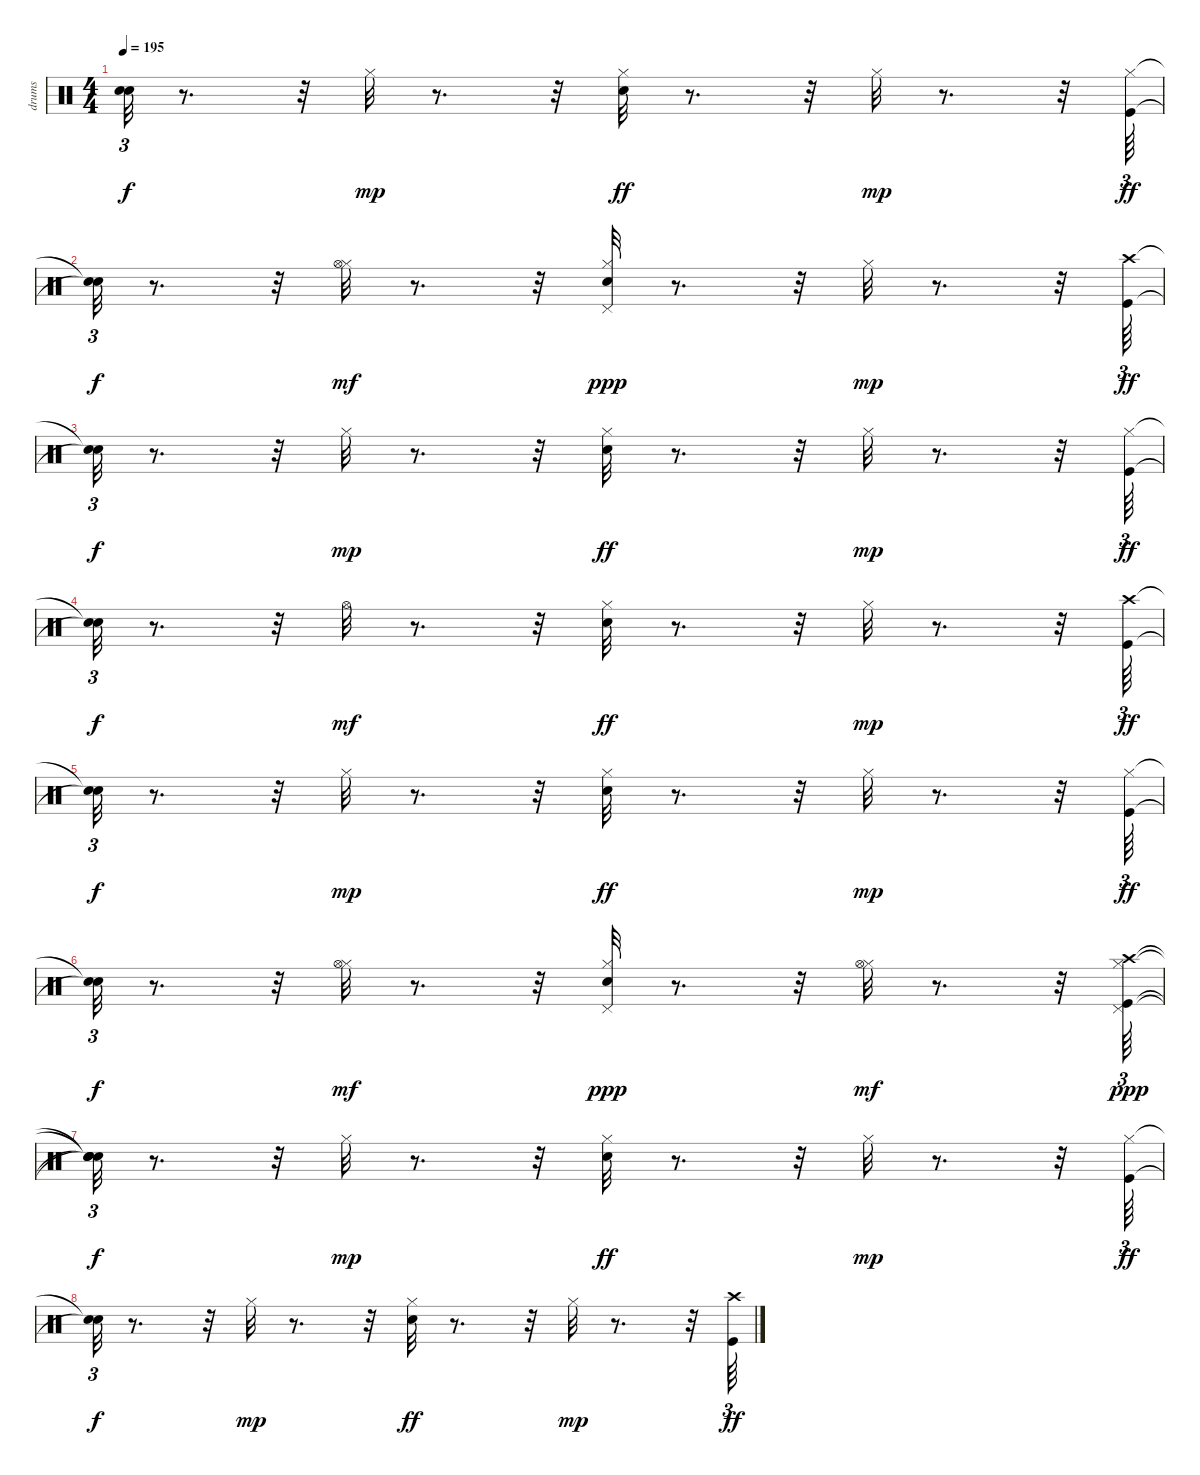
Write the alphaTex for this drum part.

\track ("drums" "drums") {instrument percussion}
\staff {score}
\articulation defaults
\ts (4 4)
\tempo 195
\clef neutral
\ks c
("Snare (hit)"{t} "Snare (hit)"{t}).32{tu (3 2) dy f} r.8{d} r.32 "Hi-Hat (closed)".32{dy mp} r.8{d} r.32 ("Snare (hit) 2" "Hi-Hat (closed)").32{dy ff} r.8{d} r.32 "Hi-Hat (closed)".32{dy mp} r.8{d} r.32 ("Hi-Hat (closed)" "Kick (hit)").64{tu (3 2) dy ff} |
("Snare (hit)"{t} "Snare (hit)"{t}).32{tu (3 2) dy f} r.8{d} r.32 ("Hi-Hat (closed)" "Hi-Hat (open)").32{dy mf} r.8{d} r.32 ("Hi-Hat (closed)" "Snare (hit) 2" "Pedal Hi-Hat (hit)").32{dy ppp} r.8{d} r.32 "Hi-Hat (closed)".32{dy mp} r.8{d} r.32 ("Crash high (hit)" "Kick (hit)").64{tu (3 2) dy ff} |
("Snare (hit)"{t} "Snare (hit)"{t}).32{tu (3 2) dy f} r.8{d} r.32 "Hi-Hat (closed)".32{dy mp} r.8{d} r.32 ("Snare (hit) 2" "Hi-Hat (closed)").32{dy ff} r.8{d} r.32 "Hi-Hat (closed)".32{dy mp} r.8{d} r.32 ("Kick (hit)" "Hi-Hat (closed)").64{tu (3 2) dy ff} |
("Snare (hit)"{t} "Snare (hit)"{t}).32{tu (3 2) dy f} r.8{d} r.32 "Hi-Hat (open)".32{dy mf} r.8{d} r.32 ("Hi-Hat (closed)" "Snare (hit) 2").32{dy ff} r.8{d} r.32 "Hi-Hat (closed)".32{dy mp} r.8{d} r.32 ("Crash high (hit)" "Kick (hit)").64{tu (3 2) dy ff} |
("Snare (hit)"{t} "Snare (hit)"{t}).32{tu (3 2) dy f} r.8{d} r.32 "Hi-Hat (closed)".32{dy mp} r.8{d} r.32 ("Snare (hit) 2" "Hi-Hat (closed)").32{dy ff} r.8{d} r.32 "Hi-Hat (closed)".32{dy mp} r.8{d} r.32 ("Hi-Hat (closed)" "Kick (hit)").64{tu (3 2) dy ff} |
("Snare (hit)"{t} "Snare (hit)"{t}).32{tu (3 2) dy f} r.8{d} r.32 ("Hi-Hat (closed)" "Hi-Hat (open)").32{dy mf} r.8{d} r.32 ("Snare (hit) 2" "Hi-Hat (closed)" "Pedal Hi-Hat (hit)").32{dy ppp} r.8{d} r.32 ("Hi-Hat (closed)" "Hi-Hat (open)").32{dy mf} r.8{d} r.32 ("Crash high (hit)" "Kick (hit)" "Hi-Hat (closed)" "Pedal Hi-Hat (hit)").64{tu (3 2) dy ppp} |
("Snare (hit)"{t} "Snare (hit)"{t} "Snare (hit)"{t} "Snare (hit)"{t}).32{tu (3 2) dy f} r.8{d} r.32 "Hi-Hat (closed)".32{dy mp} r.8{d} r.32 ("Snare (hit) 2" "Hi-Hat (closed)").32{dy ff} r.8{d} r.32 "Hi-Hat (closed)".32{dy mp} r.8{d} r.32 ("Hi-Hat (closed)" "Kick (hit)").64{tu (3 2) dy ff} |
("Snare (hit)"{t} "Snare (hit)"{t}).32{tu (3 2) dy f} r.8{d} r.32 "Hi-Hat (closed)".32{dy mp} r.8{d} r.32 ("Hi-Hat (closed)" "Snare (hit) 2").32{dy ff} r.8{d} r.32 "Hi-Hat (closed)".32{dy mp} r.8{d} r.32 ("Crash high (hit)" "Kick (hit)").64{tu (3 2) dy ff}
